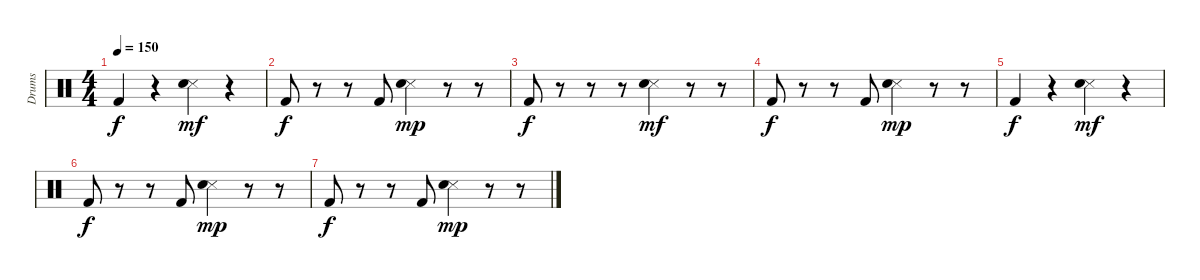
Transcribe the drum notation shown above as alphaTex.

\track ("Drums" "Drums") {instrument percussion}
\staff {score}
\articulation defaults
\ts (4 4)
\tempo 150
\clef neutral
\ks c "Kick (hit) 2".4{dy f}
r.4 ("Snare (side stick) 3" "Snare (hit) 2").4{dy mf} r.4 |
"Kick (hit) 2".8{dy f} r.8 r.8 "Kick (hit) 2".8 ("Snare (side stick) 3" "Snare (hit) 2").4{dy mp} r.8 r.8 |
"Kick (hit) 2".8{dy f} r.8 r.8 r.8 ("Snare (side stick) 3" "Snare (hit) 2").4{dy mf} r.8 r.8 |
"Kick (hit) 2".8{dy f} r.8 r.8 "Kick (hit) 2".8 ("Snare (side stick) 3" "Snare (hit) 2").4{dy mp} r.8 r.8 |
"Kick (hit) 2".4{dy f} r.4 ("Snare (side stick) 3" "Snare (hit) 2").4{dy mf} r.4 |
"Kick (hit) 2".8{dy f} r.8 r.8 "Kick (hit) 2".8 ("Snare (side stick) 3" "Snare (hit) 2").4{dy mp} r.8 r.8 |
"Kick (hit) 2".8{dy f} r.8 r.8 "Kick (hit) 2".8 ("Snare (side stick) 3" "Snare (hit) 2").4{dy mp} r.8 r.8
